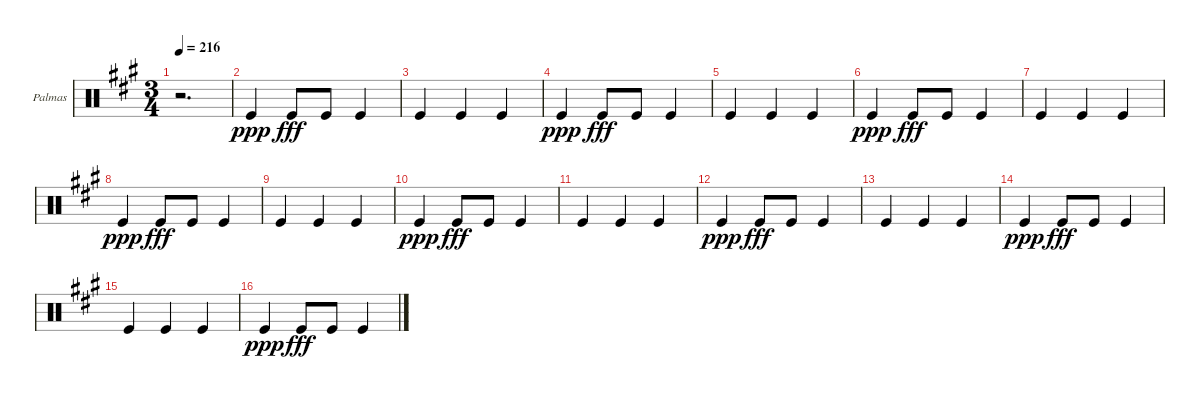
\defaultSystemsLayout 4
\bracketExtendMode groupsimilarinstruments
\firstSystemTrackNameOrientation horizontal
\otherSystemsTrackNameOrientation horizontal
\track ("Palmas" "Palmas") {instrument percussion}
\staff {score}
\articulation defaults
\ts (3 4)
\tempo 216
\clef neutral
\ks a
r.2{d dy ppp} |
"Kick (hit)".4 "Kick (hit)".8{dy fff} "Kick (hit)".8 "Kick (hit)".4 |
"Kick (hit)".4 "Kick (hit)".4 "Kick (hit)".4 |
"Kick (hit)".4{dy ppp} "Kick (hit)".8{dy fff} "Kick (hit)".8 "Kick (hit)".4 |
"Kick (hit)".4 "Kick (hit)".4 "Kick (hit)".4 |
"Kick (hit)".4{dy ppp} "Kick (hit)".8{dy fff} "Kick (hit)".8 "Kick (hit)".4 |
"Kick (hit)".4 "Kick (hit)".4 "Kick (hit)".4 |
"Kick (hit)".4{dy ppp} "Kick (hit)".8{dy fff} "Kick (hit)".8 "Kick (hit)".4 |
"Kick (hit)".4 "Kick (hit)".4 "Kick (hit)".4 |
"Kick (hit)".4{dy ppp} "Kick (hit)".8{dy fff} "Kick (hit)".8 "Kick (hit)".4 |
"Kick (hit)".4 "Kick (hit)".4 "Kick (hit)".4 |
"Kick (hit)".4{dy ppp} "Kick (hit)".8{dy fff} "Kick (hit)".8 "Kick (hit)".4 |
"Kick (hit)".4 "Kick (hit)".4 "Kick (hit)".4 |
"Kick (hit)".4{dy ppp} "Kick (hit)".8{dy fff} "Kick (hit)".8 "Kick (hit)".4 |
"Kick (hit)".4 "Kick (hit)".4 "Kick (hit)".4 |
"Kick (hit)".4{dy ppp} "Kick (hit)".8{dy fff} "Kick (hit)".8 "Kick (hit)".4
